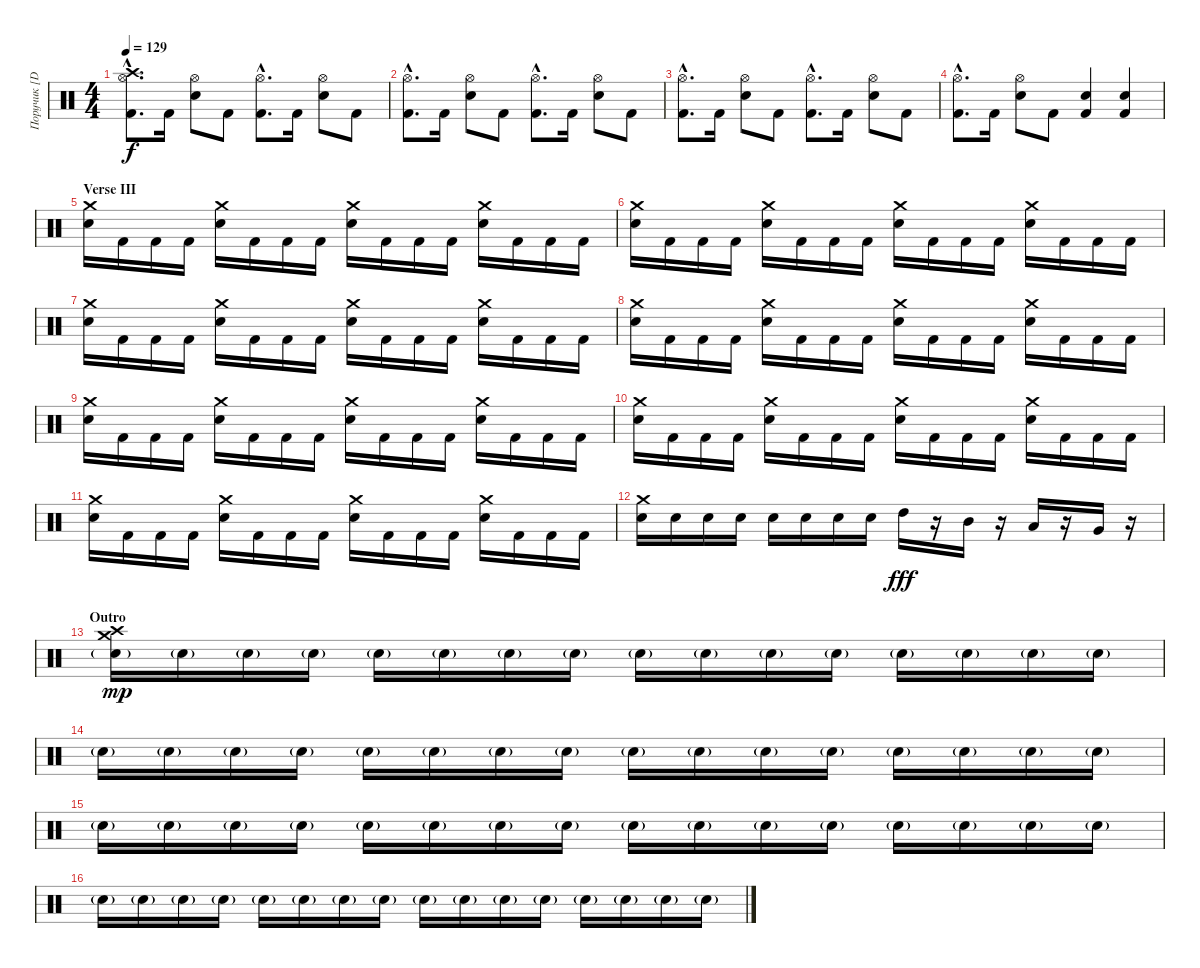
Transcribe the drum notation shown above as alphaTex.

\track ("Поручик [Drums]" "Поручик [D") {instrument percussion}
\staff {score}
\articulation defaults
\ts (4 4)
\tempo 129
\clef neutral
\ks c
("Crash high (hit)"{hac} "Hi-Hat (open)"{hac} "Kick (hit) 2"{hac}).8{d dy f} "Kick (hit) 2".16 ("Hi-Hat (open)" "Snare (hit) 2").8 "Kick (hit) 2".8 ("Hi-Hat (open)"{hac} "Kick (hit) 2"{hac}).8{d} "Kick (hit) 2".16 ("Hi-Hat (open)" "Snare (hit) 2").8 "Kick (hit) 2".8 |
("Hi-Hat (open)"{hac} "Kick (hit) 2"{hac}).8{d} "Kick (hit) 2".16 ("Hi-Hat (open)" "Snare (hit) 2").8 "Kick (hit) 2".8 ("Hi-Hat (open)"{hac} "Kick (hit) 2"{hac}).8{d} "Kick (hit) 2".16 ("Hi-Hat (open)" "Snare (hit) 2").8 "Kick (hit) 2".8 |
("Hi-Hat (open)"{hac} "Kick (hit) 2"{hac}).8{d} "Kick (hit) 2".16 ("Hi-Hat (open)" "Snare (hit) 2").8 "Kick (hit) 2".8 ("Hi-Hat (open)"{hac} "Kick (hit) 2"{hac}).8{d} "Kick (hit) 2".16 ("Hi-Hat (open)" "Snare (hit) 2").8 "Kick (hit) 2".8 |
("Hi-Hat (open)"{hac} "Kick (hit) 2"{hac}).8{d} "Kick (hit) 2".16 ("Hi-Hat (open)" "Snare (hit) 2").8 "Kick (hit) 2".8 ("Snare (hit) 2" "Kick (hit) 2").4 ("Snare (hit) 2" "Kick (hit) 2").4 |
\section ("" "Verse III")
("Crash medium (hit)" "Snare (hit) 2").16 "Kick (hit) 2".16 "Kick (hit) 2".16 "Kick (hit) 2".16 ("Crash medium (hit)" "Snare (hit) 2").16 "Kick (hit) 2".16 "Kick (hit) 2".16 "Kick (hit) 2".16 ("Crash medium (hit)" "Snare (hit) 2").16 "Kick (hit) 2".16 "Kick (hit) 2".16 "Kick (hit) 2".16 ("Crash medium (hit)" "Snare (hit) 2").16 "Kick (hit) 2".16 "Kick (hit) 2".16 "Kick (hit) 2".16 |
("Crash medium (hit)" "Snare (hit) 2").16 "Kick (hit) 2".16 "Kick (hit) 2".16 "Kick (hit) 2".16 ("Crash medium (hit)" "Snare (hit) 2").16 "Kick (hit) 2".16 "Kick (hit) 2".16 "Kick (hit) 2".16 ("Crash medium (hit)" "Snare (hit) 2").16 "Kick (hit) 2".16 "Kick (hit) 2".16 "Kick (hit) 2".16 ("Crash medium (hit)" "Snare (hit) 2").16 "Kick (hit) 2".16 "Kick (hit) 2".16 "Kick (hit) 2".16 |
("Crash medium (hit)" "Snare (hit) 2").16 "Kick (hit) 2".16 "Kick (hit) 2".16 "Kick (hit) 2".16 ("Crash medium (hit)" "Snare (hit) 2").16 "Kick (hit) 2".16 "Kick (hit) 2".16 "Kick (hit) 2".16 ("Crash medium (hit)" "Snare (hit) 2").16 "Kick (hit) 2".16 "Kick (hit) 2".16 "Kick (hit) 2".16 ("Crash medium (hit)" "Snare (hit) 2").16 "Kick (hit) 2".16 "Kick (hit) 2".16 "Kick (hit) 2".16 |
("Crash medium (hit)" "Snare (hit) 2").16 "Kick (hit) 2".16 "Kick (hit) 2".16 "Kick (hit) 2".16 ("Crash medium (hit)" "Snare (hit) 2").16 "Kick (hit) 2".16 "Kick (hit) 2".16 "Kick (hit) 2".16 ("Crash medium (hit)" "Snare (hit) 2").16 "Kick (hit) 2".16 "Kick (hit) 2".16 "Kick (hit) 2".16 ("Crash medium (hit)" "Snare (hit) 2").16 "Kick (hit) 2".16 "Kick (hit) 2".16 "Kick (hit) 2".16 |
("Crash medium (hit)" "Snare (hit) 2").16 "Kick (hit) 2".16 "Kick (hit) 2".16 "Kick (hit) 2".16 ("Crash medium (hit)" "Snare (hit) 2").16 "Kick (hit) 2".16 "Kick (hit) 2".16 "Kick (hit) 2".16 ("Crash medium (hit)" "Snare (hit) 2").16 "Kick (hit) 2".16 "Kick (hit) 2".16 "Kick (hit) 2".16 ("Crash medium (hit)" "Snare (hit) 2").16 "Kick (hit) 2".16 "Kick (hit) 2".16 "Kick (hit) 2".16 |
("Crash medium (hit)" "Snare (hit) 2").16 "Kick (hit) 2".16 "Kick (hit) 2".16 "Kick (hit) 2".16 ("Crash medium (hit)" "Snare (hit) 2").16 "Kick (hit) 2".16 "Kick (hit) 2".16 "Kick (hit) 2".16 ("Crash medium (hit)" "Snare (hit) 2").16 "Kick (hit) 2".16 "Kick (hit) 2".16 "Kick (hit) 2".16 ("Crash medium (hit)" "Snare (hit) 2").16 "Kick (hit) 2".16 "Kick (hit) 2".16 "Kick (hit) 2".16 |
("Crash medium (hit)" "Snare (hit) 2").16 "Kick (hit) 2".16 "Kick (hit) 2".16 "Kick (hit) 2".16 ("Crash medium (hit)" "Snare (hit) 2").16 "Kick (hit) 2".16 "Kick (hit) 2".16 "Kick (hit) 2".16 ("Crash medium (hit)" "Snare (hit) 2").16 "Kick (hit) 2".16 "Kick (hit) 2".16 "Kick (hit) 2".16 ("Crash medium (hit)" "Snare (hit) 2").16 "Kick (hit) 2".16 "Kick (hit) 2".16 "Kick (hit) 2".16 |
("Crash medium (hit)" "Snare (hit) 2").16 "Snare (hit) 2".16 "Snare (hit) 2".16 "Snare (hit) 2".16 "Snare (hit) 2".16 "Snare (hit) 2".16 "Snare (hit) 2".16 "Snare (hit) 2".16 "High Tom (hit)".16{dy fff} r.16 "Mid Tom (hit)".16 r.16 "Low Tom (hit)".16 r.16 "Very Low Tom (hit)".16 r.16 |
\section ("" "Outro")
("Crash medium (hit)" "Crash high (hit)" "Snare (hit) 2"{g}).16{dy mp} "Snare (hit) 2"{g}.16 "Snare (hit) 2"{g}.16 "Snare (hit) 2"{g}.16 "Snare (hit) 2"{g}.16 "Snare (hit) 2"{g}.16 "Snare (hit) 2"{g}.16 "Snare (hit) 2"{g}.16 "Snare (hit) 2"{g}.16 "Snare (hit) 2"{g}.16 "Snare (hit) 2"{g}.16 "Snare (hit) 2"{g}.16 "Snare (hit) 2"{g}.16 "Snare (hit) 2"{g}.16 "Snare (hit) 2"{g}.16 "Snare (hit) 2"{g}.16 |
"Snare (hit) 2"{g}.16 "Snare (hit) 2"{g}.16 "Snare (hit) 2"{g}.16 "Snare (hit) 2"{g}.16 "Snare (hit) 2"{g}.16 "Snare (hit) 2"{g}.16 "Snare (hit) 2"{g}.16 "Snare (hit) 2"{g}.16 "Snare (hit) 2"{g}.16 "Snare (hit) 2"{g}.16 "Snare (hit) 2"{g}.16 "Snare (hit) 2"{g}.16 "Snare (hit) 2"{g}.16 "Snare (hit) 2"{g}.16 "Snare (hit) 2"{g}.16 "Snare (hit) 2"{g}.16 |
"Snare (hit) 2"{g}.16 "Snare (hit) 2"{g}.16 "Snare (hit) 2"{g}.16 "Snare (hit) 2"{g}.16 "Snare (hit) 2"{g}.16 "Snare (hit) 2"{g}.16 "Snare (hit) 2"{g}.16 "Snare (hit) 2"{g}.16 "Snare (hit) 2"{g}.16 "Snare (hit) 2"{g}.16 "Snare (hit) 2"{g}.16 "Snare (hit) 2"{g}.16 "Snare (hit) 2"{g}.16 "Snare (hit) 2"{g}.16 "Snare (hit) 2"{g}.16 "Snare (hit) 2"{g}.16 |
"Snare (hit) 2"{g}.16 "Snare (hit) 2"{g}.16 "Snare (hit) 2"{g}.16 "Snare (hit) 2"{g}.16 "Snare (hit) 2"{g}.16 "Snare (hit) 2"{g}.16 "Snare (hit) 2"{g}.16 "Snare (hit) 2"{g}.16 "Snare (hit) 2"{g}.16 "Snare (hit) 2"{g}.16 "Snare (hit) 2"{g}.16 "Snare (hit) 2"{g}.16 "Snare (hit) 2"{g}.16 "Snare (hit) 2"{g}.16 "Snare (hit) 2"{g}.16 "Snare (hit) 2"{g}.16
